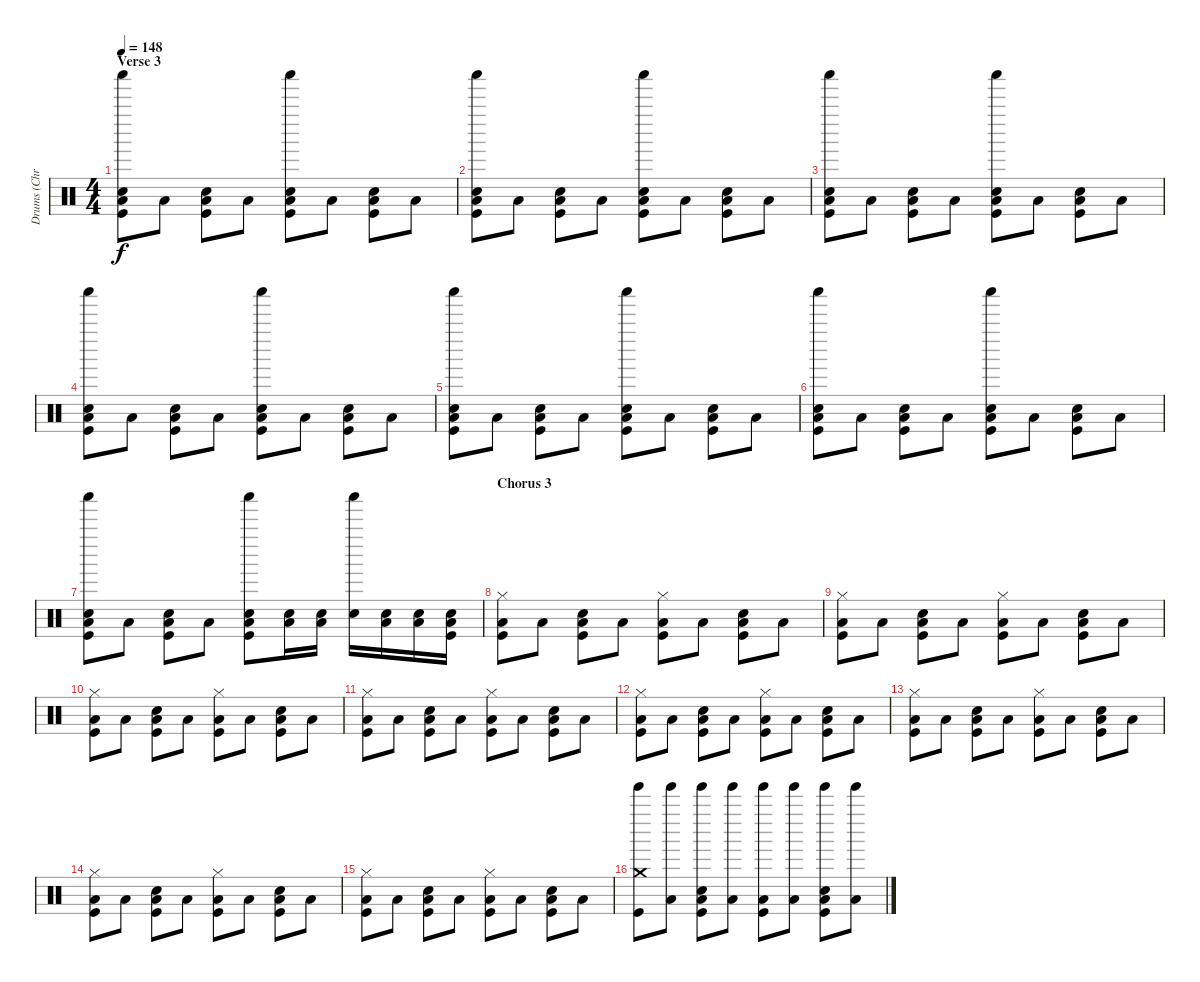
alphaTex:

\track ("Drums (Chris Dangerous)" "Drums (Chr") {instrument percussion}
\staff {score}
\articulation defaults
\ts (4 4)
\section ("" "Verse 3")
\tempo 148
\clef neutral
\ks c
("Low Tom (hit)" "Kick (hit)" "Shaker (hit)" "Hand Clap (hit)").8{dy f} "Low Tom (hit)".8 ("Low Tom (hit)" "Kick (hit)" "Snare (hit) 2").8 "Low Tom (hit)".8 ("Low Tom (hit)" "Kick (hit)" "Shaker (hit)" "Hand Clap (hit)").8 "Low Tom (hit)".8 ("Low Tom (hit)" "Kick (hit)" "Snare (hit) 2").8 "Low Tom (hit)".8 |
("Low Tom (hit)" "Kick (hit)" "Shaker (hit)" "Hand Clap (hit)").8 "Low Tom (hit)".8 ("Low Tom (hit)" "Kick (hit)" "Snare (hit) 2").8 "Low Tom (hit)".8 ("Low Tom (hit)" "Kick (hit)" "Shaker (hit)" "Hand Clap (hit)").8 "Low Tom (hit)".8 ("Low Tom (hit)" "Kick (hit)" "Snare (hit) 2").8 "Low Tom (hit)".8 |
("Low Tom (hit)" "Kick (hit)" "Shaker (hit)" "Hand Clap (hit)").8 "Low Tom (hit)".8 ("Low Tom (hit)" "Kick (hit)" "Snare (hit) 2").8 "Low Tom (hit)".8 ("Low Tom (hit)" "Kick (hit)" "Shaker (hit)" "Hand Clap (hit)").8 "Low Tom (hit)".8 ("Low Tom (hit)" "Kick (hit)" "Snare (hit) 2").8 "Low Tom (hit)".8 |
("Low Tom (hit)" "Kick (hit)" "Shaker (hit)" "Hand Clap (hit)").8 "Low Tom (hit)".8 ("Low Tom (hit)" "Kick (hit)" "Snare (hit) 2").8 "Low Tom (hit)".8 ("Low Tom (hit)" "Kick (hit)" "Shaker (hit)" "Hand Clap (hit)").8 "Low Tom (hit)".8 ("Low Tom (hit)" "Kick (hit)" "Snare (hit) 2").8 "Low Tom (hit)".8 |
("Low Tom (hit)" "Kick (hit)" "Shaker (hit)" "Hand Clap (hit)").8 "Low Tom (hit)".8 ("Low Tom (hit)" "Kick (hit)" "Snare (hit) 2").8 "Low Tom (hit)".8 ("Low Tom (hit)" "Kick (hit)" "Shaker (hit)" "Hand Clap (hit)").8 "Low Tom (hit)".8 ("Low Tom (hit)" "Kick (hit)" "Snare (hit) 2").8 "Low Tom (hit)".8 |
("Low Tom (hit)" "Kick (hit)" "Shaker (hit)" "Hand Clap (hit)").8 "Low Tom (hit)".8 ("Low Tom (hit)" "Kick (hit)" "Snare (hit) 2").8 "Low Tom (hit)".8 ("Low Tom (hit)" "Kick (hit)" "Shaker (hit)" "Hand Clap (hit)").8 "Low Tom (hit)".8 ("Low Tom (hit)" "Kick (hit)" "Snare (hit) 2").8 "Low Tom (hit)".8 |
("Low Tom (hit)" "Kick (hit)" "Shaker (hit)" "Hand Clap (hit)").8 "Low Tom (hit)".8 ("Low Tom (hit)" "Kick (hit)" "Snare (hit) 2").8 "Low Tom (hit)".8 ("Low Tom (hit)" "Kick (hit)" "Shaker (hit)" "Hand Clap (hit)").8 ("Low Tom (hit)" "Snare (hit) 2").16 ("Low Tom (hit)" "Snare (hit) 2").16 ("Shaker (hit)" "Hand Clap (hit)").16 ("Low Tom (hit)" "Snare (hit) 2").16 ("Low Tom (hit)" "Snare (hit) 2").16 ("Low Tom (hit)" "Kick (hit)" "Snare (hit) 2").16 |
\section ("" "Chorus 3")
("Low Tom (hit)" "Kick (hit)" "Hi-Hat (closed)").8 "Low Tom (hit)".8 ("Low Tom (hit)" "Kick (hit)" "Snare (hit) 2").8 "Low Tom (hit)".8 ("Low Tom (hit)" "Kick (hit)" "Hi-Hat (closed)").8 "Low Tom (hit)".8 ("Low Tom (hit)" "Kick (hit)" "Snare (hit) 2").8 "Low Tom (hit)".8 |
("Low Tom (hit)" "Kick (hit)" "Hi-Hat (closed)").8 "Low Tom (hit)".8 ("Low Tom (hit)" "Kick (hit)" "Snare (hit) 2").8 "Low Tom (hit)".8 ("Low Tom (hit)" "Kick (hit)" "Hi-Hat (closed)").8 "Low Tom (hit)".8 ("Low Tom (hit)" "Kick (hit)" "Snare (hit) 2").8 "Low Tom (hit)".8 |
("Low Tom (hit)" "Kick (hit)" "Hi-Hat (closed)").8 "Low Tom (hit)".8 ("Low Tom (hit)" "Kick (hit)" "Snare (hit) 2").8 "Low Tom (hit)".8 ("Low Tom (hit)" "Kick (hit)" "Hi-Hat (closed)").8 "Low Tom (hit)".8 ("Low Tom (hit)" "Kick (hit)" "Snare (hit) 2").8 "Low Tom (hit)".8 |
("Low Tom (hit)" "Kick (hit)" "Hi-Hat (closed)").8 "Low Tom (hit)".8 ("Low Tom (hit)" "Kick (hit)" "Snare (hit) 2").8 "Low Tom (hit)".8 ("Low Tom (hit)" "Kick (hit)" "Hi-Hat (closed)").8 "Low Tom (hit)".8 ("Low Tom (hit)" "Kick (hit)" "Snare (hit) 2").8 "Low Tom (hit)".8 |
("Low Tom (hit)" "Kick (hit)" "Hi-Hat (closed)").8 "Low Tom (hit)".8 ("Low Tom (hit)" "Kick (hit)" "Snare (hit) 2").8 "Low Tom (hit)".8 ("Low Tom (hit)" "Kick (hit)" "Hi-Hat (closed)").8 "Low Tom (hit)".8 ("Low Tom (hit)" "Kick (hit)" "Snare (hit) 2").8 "Low Tom (hit)".8 |
("Low Tom (hit)" "Kick (hit)" "Hi-Hat (closed)").8 "Low Tom (hit)".8 ("Low Tom (hit)" "Kick (hit)" "Snare (hit) 2").8 "Low Tom (hit)".8 ("Low Tom (hit)" "Kick (hit)" "Hi-Hat (closed)").8 "Low Tom (hit)".8 ("Low Tom (hit)" "Kick (hit)" "Snare (hit) 2").8 "Low Tom (hit)".8 |
("Low Tom (hit)" "Kick (hit)" "Hi-Hat (closed)").8 "Low Tom (hit)".8 ("Low Tom (hit)" "Kick (hit)" "Snare (hit) 2").8 "Low Tom (hit)".8 ("Low Tom (hit)" "Kick (hit)" "Hi-Hat (closed)").8 "Low Tom (hit)".8 ("Low Tom (hit)" "Kick (hit)" "Snare (hit) 2").8 "Low Tom (hit)".8 |
("Low Tom (hit)" "Kick (hit)" "Hi-Hat (closed)").8 "Low Tom (hit)".8 ("Low Tom (hit)" "Kick (hit)" "Snare (hit) 2").8 "Low Tom (hit)".8 ("Low Tom (hit)" "Kick (hit)" "Hi-Hat (closed)").8 "Low Tom (hit)".8 ("Low Tom (hit)" "Kick (hit)" "Snare (hit) 2").8 "Low Tom (hit)".8 |
("Kick (hit)" "Crash medium (hit)" "Tinkle Bell (hit)").8 ("Low Tom (hit)" "Tinkle Bell (hit)").8 ("Low Tom (hit)" "Kick (hit)" "Snare (hit) 2" "Tinkle Bell (hit)").8 ("Low Tom (hit)" "Tinkle Bell (hit)").8 ("Low Tom (hit)" "Kick (hit)" "Tinkle Bell (hit)").8 ("Low Tom (hit)" "Tinkle Bell (hit)").8 ("Low Tom (hit)" "Kick (hit)" "Snare (hit) 2" "Tinkle Bell (hit)").8 ("Low Tom (hit)" "Tinkle Bell (hit)").8
